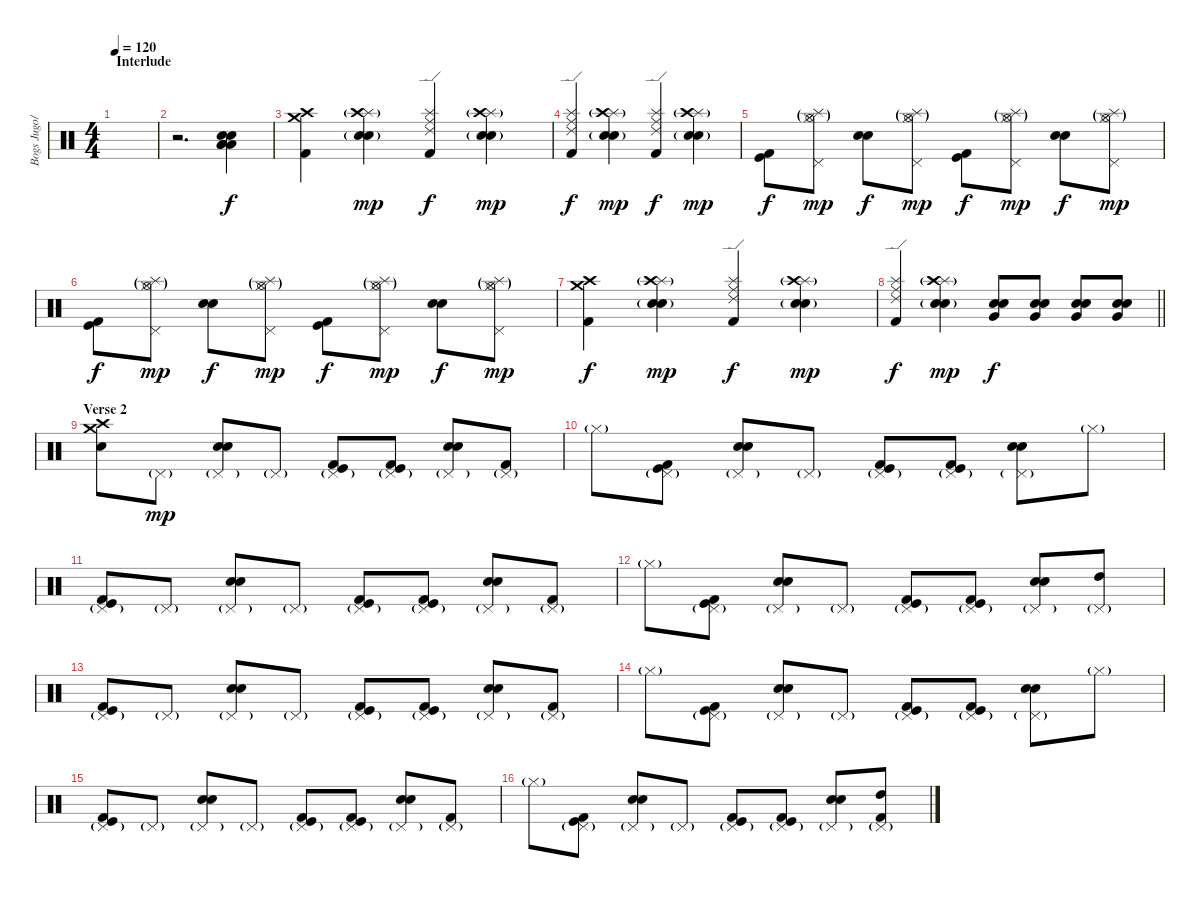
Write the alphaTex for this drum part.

\track ("Bogs Jugo/Drums" "Bogs Jugo/") {instrument percussion}
\staff {score}
\articulation defaults
\ts (4 4)
\section ("" "Interlude")
\tempo 120
\clef neutral
\ks c
|
r.2{d} ("Electric Snare (hit)" "Snare (hit) 2" "Low Tom (hit)" "Low Tom (hit)" "Low Tom (hit)").4 |
("Crash medium (hit)" "Crash high (hit)" "Kick (hit) 2").4 ("Splash (hit)" "Crash high (hit)"{g} "Electric Snare (hit)" "Snare (hit) 2"{g}).4{dy mp} ("Splash (hit)" "Kick (hit) 2" "Ride (middle)" "Ride (edge) 2").4{dy f} ("Splash (hit)" "Crash high (hit)"{g} "Electric Snare (hit)" "Snare (hit) 2"{g}).4{dy mp} |
("Splash (hit)" "Kick (hit) 2" "Ride (middle)" "Ride (edge) 2").4{dy f} ("Splash (hit)" "Crash high (hit)"{g} "Electric Snare (hit)" "Snare (hit) 2"{g}).4{dy mp} ("Splash (hit)" "Kick (hit) 2" "Ride (middle)" "Ride (edge) 2").4{dy f} ("Splash (hit)" "Crash high (hit)"{g} "Electric Snare (hit)" "Snare (hit) 2"{g}).4{dy mp} |
("Kick (hit) 2" "Kick (hit)").8{dy f} ("Hi-Hat (open)"{g} "Splash (hit)"{g} "Pedal Hi-Hat (hit)" "Hi-Hat (closed)").8{dy mp} ("Electric Snare (hit)" "Snare (hit) 2").8{dy f} ("Hi-Hat (open)"{g} "Splash (hit)"{g} "Pedal Hi-Hat (hit)" "Hi-Hat (closed)").8{dy mp} ("Kick (hit) 2" "Kick (hit)").8{dy f} ("Hi-Hat (open)"{g} "Splash (hit)"{g} "Pedal Hi-Hat (hit)" "Hi-Hat (closed)").8{dy mp} ("Electric Snare (hit)" "Snare (hit) 2").8{dy f} ("Hi-Hat (open)"{g} "Splash (hit)"{g} "Pedal Hi-Hat (hit)" "Hi-Hat (closed)").8{dy mp} |
("Kick (hit) 2" "Kick (hit)").8{dy f} ("Hi-Hat (open)"{g} "Splash (hit)"{g} "Pedal Hi-Hat (hit)" "Hi-Hat (closed)").8{dy mp} ("Electric Snare (hit)" "Snare (hit) 2").8{dy f} ("Hi-Hat (open)"{g} "Splash (hit)"{g} "Pedal Hi-Hat (hit)" "Hi-Hat (closed)").8{dy mp} ("Kick (hit) 2" "Kick (hit)").8{dy f} ("Hi-Hat (open)"{g} "Splash (hit)"{g} "Pedal Hi-Hat (hit)" "Hi-Hat (closed)").8{dy mp} ("Electric Snare (hit)" "Snare (hit) 2").8{dy f} ("Hi-Hat (open)"{g} "Splash (hit)"{g} "Pedal Hi-Hat (hit)" "Hi-Hat (closed)").8{dy mp} |
("Crash medium (hit)" "Crash high (hit)" "Kick (hit) 2").4{dy f} ("Splash (hit)" "Crash high (hit)"{g} "Electric Snare (hit)" "Snare (hit) 2"{g}).4{dy mp} ("Splash (hit)" "Kick (hit) 2" "Ride (middle)" "Ride (edge) 2").4{dy f} ("Splash (hit)" "Crash high (hit)"{g} "Electric Snare (hit)" "Snare (hit) 2"{g}).4{dy mp} |
\barLineRight lightlight
("Splash (hit)" "Kick (hit) 2" "Ride (middle)" "Ride (edge) 2").4{dy f} ("Splash (hit)" "Crash high (hit)"{g} "Electric Snare (hit)" "Snare (hit) 2"{g}).4{dy mp} ("Electric Snare (hit)" "Snare (hit) 2" "Very Low Tom (hit)").8{dy f} ("Electric Snare (hit)" "Snare (hit) 2" "Very Low Tom (hit)").8 ("Electric Snare (hit)" "Snare (hit) 2" "Very Low Tom (hit)").8 ("Electric Snare (hit)" "Snare (hit) 2" "Very Low Tom (hit)").8 |
\section ("" "Verse 2")
("Crash medium (hit)" "Crash high (hit)" "Electric Snare (hit)").8 "Pedal Hi-Hat (hit)"{g}.8{dy mp} ("Pedal Hi-Hat (hit)"{g} "Electric Snare (hit)" "Snare (hit) 2").8 "Pedal Hi-Hat (hit)"{g}.8 ("Pedal Hi-Hat (hit)"{g} "Kick (hit) 2" "Kick (hit)").8 ("Pedal Hi-Hat (hit)"{g} "Kick (hit) 2" "Kick (hit)").8 ("Pedal Hi-Hat (hit)"{g} "Electric Snare (hit)" "Snare (hit) 2").8 ("Pedal Hi-Hat (hit)"{g} "Kick (hit) 2").8 |
"Hi-Hat (closed)"{g}.8 ("Pedal Hi-Hat (hit)"{g} "Kick (hit) 2" "Kick (hit)").8 ("Pedal Hi-Hat (hit)"{g} "Electric Snare (hit)" "Snare (hit) 2").8 "Pedal Hi-Hat (hit)"{g}.8 ("Pedal Hi-Hat (hit)"{g} "Kick (hit) 2" "Kick (hit)").8 ("Pedal Hi-Hat (hit)"{g} "Kick (hit) 2" "Kick (hit)").8 ("Pedal Hi-Hat (hit)"{g} "Electric Snare (hit)" "Snare (hit) 2").8 "Hi-Hat (closed)"{g}.8 |
("Pedal Hi-Hat (hit)"{g} "Kick (hit) 2" "Kick (hit)").8 "Pedal Hi-Hat (hit)"{g}.8 ("Pedal Hi-Hat (hit)"{g} "Electric Snare (hit)" "Snare (hit) 2").8 "Pedal Hi-Hat (hit)"{g}.8 ("Pedal Hi-Hat (hit)"{g} "Kick (hit) 2" "Kick (hit)").8 ("Pedal Hi-Hat (hit)"{g} "Kick (hit) 2" "Kick (hit)").8 ("Pedal Hi-Hat (hit)"{g} "Electric Snare (hit)" "Snare (hit) 2").8 ("Pedal Hi-Hat (hit)"{g} "Kick (hit) 2").8 |
"Hi-Hat (closed)"{g}.8 ("Pedal Hi-Hat (hit)"{g} "Kick (hit) 2" "Kick (hit)").8 ("Pedal Hi-Hat (hit)"{g} "Electric Snare (hit)" "Snare (hit) 2").8 "Pedal Hi-Hat (hit)"{g}.8 ("Pedal Hi-Hat (hit)"{g} "Kick (hit) 2" "Kick (hit)").8 ("Pedal Hi-Hat (hit)"{g} "Kick (hit) 2" "Kick (hit)").8 ("Pedal Hi-Hat (hit)"{g} "Electric Snare (hit)" "Snare (hit) 2").8 ("Pedal Hi-Hat (hit)"{g} "High Tom (hit)").8 |
("Pedal Hi-Hat (hit)"{g} "Kick (hit) 2" "Kick (hit)").8 "Pedal Hi-Hat (hit)"{g}.8 ("Pedal Hi-Hat (hit)"{g} "Electric Snare (hit)" "Snare (hit) 2").8 "Pedal Hi-Hat (hit)"{g}.8 ("Pedal Hi-Hat (hit)"{g} "Kick (hit) 2" "Kick (hit)").8 ("Pedal Hi-Hat (hit)"{g} "Kick (hit) 2" "Kick (hit)").8 ("Pedal Hi-Hat (hit)"{g} "Electric Snare (hit)" "Snare (hit) 2").8 ("Pedal Hi-Hat (hit)"{g} "Kick (hit) 2").8 |
"Hi-Hat (closed)"{g}.8 ("Pedal Hi-Hat (hit)"{g} "Kick (hit) 2" "Kick (hit)").8 ("Pedal Hi-Hat (hit)"{g} "Electric Snare (hit)" "Snare (hit) 2").8 "Pedal Hi-Hat (hit)"{g}.8 ("Pedal Hi-Hat (hit)"{g} "Kick (hit) 2" "Kick (hit)").8 ("Pedal Hi-Hat (hit)"{g} "Kick (hit) 2" "Kick (hit)").8 ("Pedal Hi-Hat (hit)"{g} "Electric Snare (hit)" "Snare (hit) 2").8 "Hi-Hat (closed)"{g}.8 |
("Pedal Hi-Hat (hit)"{g} "Kick (hit) 2" "Kick (hit)").8 "Pedal Hi-Hat (hit)"{g}.8 ("Pedal Hi-Hat (hit)"{g} "Electric Snare (hit)" "Snare (hit) 2").8 "Pedal Hi-Hat (hit)"{g}.8 ("Pedal Hi-Hat (hit)"{g} "Kick (hit) 2" "Kick (hit)").8 ("Pedal Hi-Hat (hit)"{g} "Kick (hit) 2" "Kick (hit)").8 ("Pedal Hi-Hat (hit)"{g} "Electric Snare (hit)" "Snare (hit) 2").8 ("Pedal Hi-Hat (hit)"{g} "Kick (hit) 2").8 |
"Hi-Hat (closed)"{g}.8 ("Pedal Hi-Hat (hit)"{g} "Kick (hit) 2" "Kick (hit)").8 ("Pedal Hi-Hat (hit)"{g} "Electric Snare (hit)" "Snare (hit) 2").8 "Pedal Hi-Hat (hit)"{g}.8 ("Pedal Hi-Hat (hit)"{g} "Kick (hit) 2" "Kick (hit)").8 ("Pedal Hi-Hat (hit)"{g} "Kick (hit) 2" "Kick (hit)").8 ("Pedal Hi-Hat (hit)"{g} "Electric Snare (hit)" "Snare (hit) 2").8 ("Pedal Hi-Hat (hit)"{g} "High Tom (hit)" "Kick (hit) 2").8
